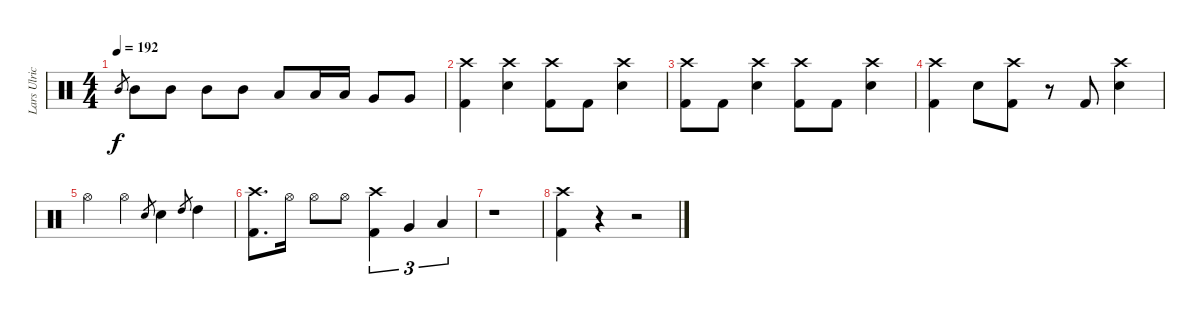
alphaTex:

\track ("Lars Ulrich - Drums" "Lars Ulric") {instrument percussion}
\staff {score}
\articulation defaults
\ts (4 4)
\tempo 192
\clef neutral
\ks c "Mid Tom (hit)".8{gr dy f} "Mid Tom (hit)".8 "Mid Tom (hit)".8 "Mid Tom (hit)".8 "Mid Tom (hit)".8 "Low Tom (hit)".8 "Low Tom (hit)".16 "Low Tom (hit)".16 "Very Low Tom (hit)".8 "Very Low Tom (hit)".8
|
("Crash high (hit)" "Kick (hit) 2").4 ("Crash high (hit)" "Snare (hit) 2").4 ("Crash high (hit)" "Kick (hit) 2").8 "Kick (hit) 2".8 ("Crash high (hit)" "Snare (hit) 2").4 |
("Crash high (hit)" "Kick (hit) 2").8 "Kick (hit) 2".8 ("Crash high (hit)" "Snare (hit) 2").4 ("Crash high (hit)" "Kick (hit) 2").8 "Kick (hit) 2".8 ("Crash high (hit)" "Snare (hit) 2").4 |
("Crash high (hit)" "Kick (hit) 2").4 "Snare (hit) 2".8 ("Crash high (hit)" "Kick (hit) 2").8 r.8 "Kick (hit) 2".8 ("Crash high (hit)" "Snare (hit) 2").4 |
"Hi-Hat (open)".4 "Hi-Hat (open)".4 "Snare (hit) 2".8{gr} "Snare (hit) 2".4 "High Tom (hit)".8{gr} "High Tom (hit)".4 |
("Crash high (hit)" "Kick (hit) 2").8{d} "Hi-Hat (open)".16 "Hi-Hat (open)".8 "Hi-Hat (open)".8 ("Crash high (hit)" "Kick (hit) 2").4{tu (3 2)} "Very Low Tom (hit)".4{tu (3 2)} "Low Floor Tom (hit)".4{tu (3 2)} |
r.1 |
("Crash high (hit)" "Kick (hit) 2").4 r.4 r.2
